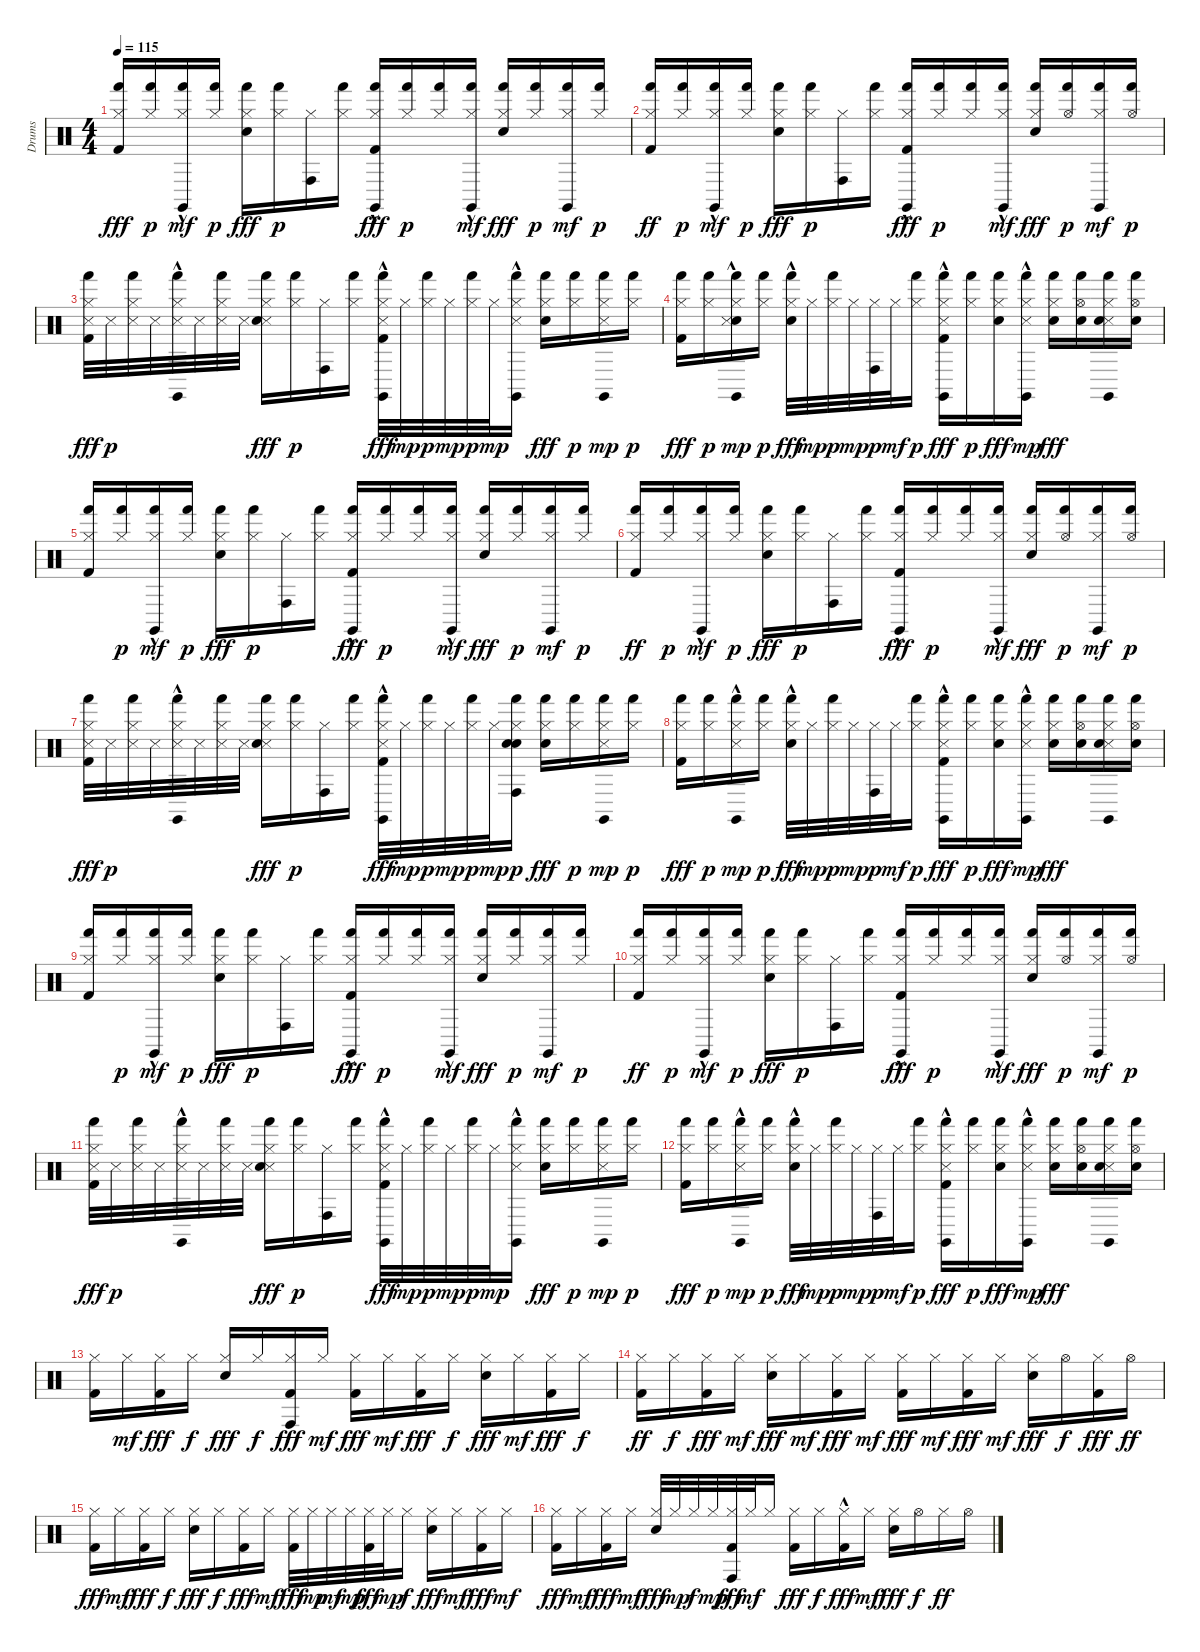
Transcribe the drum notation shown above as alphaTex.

\track ("Drums" "Drums") {instrument percussion}
\staff {score}
\articulation defaults
\ts (4 4)
\tempo 115
\clef neutral
\ks c
("Hi-Hat (closed)" "Hand (hit)" "Kick (hit) 2").16{dy fff} ("Hi-Hat (closed)" "Hand (hit)").16{dy p} ("Hi-Hat (closed)" "Hand (hit)" "Claves (hit)"{hac}).16{dy mf} ("Hi-Hat (closed)" "Hand (hit)").16{dy p} ("Hi-Hat (closed)" "Hand (hit)" "Snare (hit) 2").16{dy fff} ("Hi-Hat (closed)" "Hand (hit)").16{dy p} ("Hi-Hat (closed)" "Conga high (hit)").16 ("Hi-Hat (closed)" "Hand (hit)").16 ("Hi-Hat (closed)" "Hand (hit)" "Claves (hit)"{hac} "Kick (hit) 2").16{dy fff} ("Hi-Hat (closed)" "Hand (hit)").16{dy p} ("Hi-Hat (closed)" "Hand (hit)").16 ("Hi-Hat (closed)" "Hand (hit)" "Claves (hit)"{hac}).16{dy mf} ("Hi-Hat (closed)" "Hand (hit)" "Snare (hit) 2").16{dy fff} ("Hi-Hat (closed)" "Hand (hit)").16{dy p} ("Hi-Hat (closed)" "Hand (hit)" "Claves (hit)").16{dy mf} ("Hi-Hat (closed)" "Hand (hit)").16{dy p} |
("Hi-Hat (closed)" "Hand (hit)" "Kick (hit) 2").16{dy ff} ("Hi-Hat (closed)" "Hand (hit)").16{dy p} ("Hi-Hat (closed)" "Hand (hit)" "Claves (hit)"{hac}).16{dy mf} ("Hi-Hat (closed)" "Hand (hit)").16{dy p} ("Hi-Hat (closed)" "Hand (hit)" "Snare (hit) 2").16{dy fff} ("Hi-Hat (closed)" "Hand (hit)").16{dy p} ("Hi-Hat (closed)" "Conga high (hit)").16 ("Hi-Hat (closed)" "Hand (hit)").16 ("Hi-Hat (closed)" "Hand (hit)" "Claves (hit)"{hac} "Kick (hit) 2").16{dy fff} ("Hi-Hat (closed)" "Hand (hit)").16{dy p} ("Hi-Hat (closed)" "Hand (hit)").16 ("Hi-Hat (closed)" "Hand (hit)" "Claves (hit)"{hac}).16{dy mf} ("Hi-Hat (closed)" "Hand (hit)" "Snare (hit) 2").16{dy fff} ("Hi-Hat (open)" "Hand (hit)").16{dy p} ("Hi-Hat (closed)" "Hand (hit)" "Claves (hit)").16{dy mf} ("Hi-Hat (open)" "Hand (hit)").16{dy p} |
("Hi-Hat (closed)" "Hand (hit)" "Snare (side stick) 3" "Kick (hit) 2").32{dy fff} "Snare (side stick) 3".32{dy p} ("Hi-Hat (closed)" "Hand (hit)" "Snare (side stick) 3").32 "Snare (side stick) 3".32 ("Hi-Hat (closed)" "Hand (hit)" "Claves (hit)"{hac} "Snare (side stick) 3").32 "Snare (side stick) 3".32 ("Hi-Hat (closed)" "Hand (hit)" "Snare (side stick) 3").32 "Snare (side stick) 3".32 ("Hi-Hat (closed)" "Hand (hit)" "Snare (side stick) 3" "Snare (hit) 2").16{dy fff} ("Hi-Hat (closed)" "Hand (hit)").16{dy p} ("Hi-Hat (closed)" "Conga high (hit)").16 ("Hi-Hat (closed)" "Hand (hit)").16 ("Hi-Hat (closed)" "Hand (hit)" "Claves (hit)"{hac} "Snare (side stick) 3"{hac} "Kick (hit) 2").32{dy fff} "Hi-Hat (closed)".32{dy mp} ("Hi-Hat (closed)" "Hand (hit)").32{dy p} "Hi-Hat (closed)".32{dy mp} ("Hi-Hat (closed)" "Hand (hit)").32{dy p} "Hi-Hat (closed)".32{dy mp} ("Hi-Hat (closed)" "Hand (hit)" "Claves (hit)"{hac} "Snare (side stick) 3"{hac}).16 ("Hi-Hat (closed)" "Hand (hit)" "Snare (hit) 2").16{dy fff} ("Hi-Hat (closed)" "Hand (hit)").16{dy p} ("Hi-Hat (closed)" "Hand (hit)" "Claves (hit)" "Snare (side stick) 3").16{dy mp} ("Hi-Hat (closed)" "Hand (hit)").16{dy p} |
("Hi-Hat (closed)" "Hand (hit)" "Kick (hit) 2").16{dy fff} ("Hi-Hat (closed)" "Hand (hit)").16{dy p} ("Hi-Hat (closed)" "Hand (hit)" "Snare (hit)" "Claves (hit)"{hac} "Snare (side stick) 3"{hac}).16{dy mp} ("Hi-Hat (closed)" "Hand (hit)").16{dy p} ("Hi-Hat (closed)" "Hand (hit)" "Snare (hit) 2"{hac}).32{dy fff} "Hi-Hat (closed)".32{dy mp} ("Hi-Hat (closed)" "Hand (hit)").32{dy p} "Hi-Hat (closed)".32{dy mp} ("Hi-Hat (closed)" "Conga high (hit)").32{dy p} "Hi-Hat (closed)".32{dy mf} ("Hi-Hat (closed)" "Hand (hit)").16{dy p} ("Hi-Hat (closed)" "Hand (hit)" "Claves (hit)"{hac} "Snare (side stick) 3"{hac} "Kick (hit) 2").16{dy fff} ("Hi-Hat (closed)" "Hand (hit)").16{dy p} ("Hi-Hat (closed)" "Hand (hit)" "Snare (hit) 2").16{dy fff} ("Hi-Hat (closed)" "Hand (hit)" "Claves (hit)"{hac} "Snare (side stick) 3"{hac}).16{dy mp} ("Hi-Hat (closed)" "Hand (hit)" "Snare (hit) 2").16{dy fff} ("Hi-Hat (open)" "Hand (hit)" "Snare (hit) 2").16 ("Hi-Hat (closed)" "Hand (hit)" "Claves (hit)" "Snare (side stick) 3" "Snare (hit) 2").16 ("Hi-Hat (open)" "Hand (hit)" "Snare (hit) 2").16 |
("Hi-Hat (closed)" "Hand (hit)" "Kick (hit) 2").16 ("Hi-Hat (closed)" "Hand (hit)").16{dy p} ("Hi-Hat (closed)" "Hand (hit)" "Claves (hit)"{hac}).16{dy mf} ("Hi-Hat (closed)" "Hand (hit)").16{dy p} ("Hi-Hat (closed)" "Hand (hit)" "Snare (hit) 2").16{dy fff} ("Hi-Hat (closed)" "Hand (hit)").16{dy p} ("Hi-Hat (closed)" "Conga high (hit)").16 ("Hi-Hat (closed)" "Hand (hit)").16 ("Hi-Hat (closed)" "Hand (hit)" "Claves (hit)"{hac} "Kick (hit) 2").16{dy fff} ("Hi-Hat (closed)" "Hand (hit)").16{dy p} ("Hi-Hat (closed)" "Hand (hit)").16 ("Hi-Hat (closed)" "Hand (hit)" "Claves (hit)"{hac}).16{dy mf} ("Hi-Hat (closed)" "Hand (hit)" "Snare (hit) 2").16{dy fff} ("Hi-Hat (closed)" "Hand (hit)").16{dy p} ("Hi-Hat (closed)" "Hand (hit)" "Claves (hit)").16{dy mf} ("Hi-Hat (closed)" "Hand (hit)").16{dy p} |
("Hi-Hat (closed)" "Hand (hit)" "Kick (hit) 2").16{dy ff} ("Hi-Hat (closed)" "Hand (hit)").16{dy p} ("Hi-Hat (closed)" "Hand (hit)" "Claves (hit)"{hac}).16{dy mf} ("Hi-Hat (closed)" "Hand (hit)").16{dy p} ("Hi-Hat (closed)" "Hand (hit)" "Snare (hit) 2").16{dy fff} ("Hi-Hat (closed)" "Hand (hit)").16{dy p} ("Hi-Hat (closed)" "Conga high (hit)").16 ("Hi-Hat (closed)" "Hand (hit)").16 ("Hi-Hat (closed)" "Hand (hit)" "Claves (hit)"{hac} "Kick (hit) 2").16{dy fff} ("Hi-Hat (closed)" "Hand (hit)").16{dy p} ("Hi-Hat (closed)" "Hand (hit)").16 ("Hi-Hat (closed)" "Hand (hit)" "Claves (hit)"{hac}).16{dy mf} ("Hi-Hat (closed)" "Hand (hit)" "Snare (hit) 2").16{dy fff} ("Hi-Hat (open)" "Hand (hit)").16{dy p} ("Hi-Hat (closed)" "Hand (hit)" "Claves (hit)").16{dy mf} ("Hi-Hat (open)" "Hand (hit)").16{dy p} |
("Hi-Hat (closed)" "Hand (hit)" "Snare (side stick) 3" "Kick (hit) 2").32{dy fff} "Snare (side stick) 3".32{dy p} ("Hi-Hat (closed)" "Hand (hit)" "Snare (side stick) 3").32 "Snare (side stick) 3".32 ("Hi-Hat (closed)" "Hand (hit)" "Claves (hit)"{hac} "Snare (side stick) 3").32 "Snare (side stick) 3".32 ("Hi-Hat (closed)" "Hand (hit)" "Snare (side stick) 3").32 "Snare (side stick) 3".32 ("Hi-Hat (closed)" "Hand (hit)" "Snare (side stick) 3" "Snare (hit) 2").16{dy fff} ("Hi-Hat (closed)" "Hand (hit)").16{dy p} ("Hi-Hat (closed)" "Conga high (hit)").16 ("Hi-Hat (closed)" "Hand (hit)").16 ("Hi-Hat (closed)" "Hand (hit)" "Claves (hit)"{hac} "Snare (side stick) 3"{hac} "Kick (hit) 2").32{dy fff} "Hi-Hat (closed)".32{dy mp} ("Hi-Hat (closed)" "Hand (hit)").32{dy p} "Hi-Hat (closed)".32{dy mp} ("Hi-Hat (closed)" "Hand (hit)").32{dy p} "Hi-Hat (closed)".32{dy mp} ("Hi-Hat (closed)" "Hand (hit)" "Snare (hit)" "Snare (hit)" "Conga high (hit)").16{dy p} ("Hi-Hat (closed)" "Hand (hit)" "Snare (hit) 2").16{dy fff} ("Hi-Hat (closed)" "Hand (hit)").16{dy p} ("Hi-Hat (closed)" "Hand (hit)" "Claves (hit)" "Snare (side stick) 3").16{dy mp} ("Hi-Hat (closed)" "Hand (hit)").16{dy p} |
("Hi-Hat (closed)" "Hand (hit)" "Kick (hit) 2").16{dy fff} ("Hi-Hat (closed)" "Hand (hit)").16{dy p} ("Hi-Hat (closed)" "Hand (hit)" "Claves (hit)"{hac} "Snare (side stick) 3"{hac}).16{dy mp} ("Hi-Hat (closed)" "Hand (hit)").16{dy p} ("Hi-Hat (closed)" "Hand (hit)" "Snare (hit) 2"{hac}).32{dy fff} "Hi-Hat (closed)".32{dy mp} ("Hi-Hat (closed)" "Hand (hit)").32{dy p} "Hi-Hat (closed)".32{dy mp} ("Hi-Hat (closed)" "Conga high (hit)").32{dy p} "Hi-Hat (closed)".32{dy mf} ("Hi-Hat (closed)" "Hand (hit)").16{dy p} ("Hi-Hat (closed)" "Hand (hit)" "Claves (hit)"{hac} "Snare (side stick) 3"{hac} "Kick (hit) 2").16{dy fff} ("Hi-Hat (closed)" "Hand (hit)").16{dy p} ("Hi-Hat (closed)" "Hand (hit)" "Snare (hit) 2").16{dy fff} ("Hi-Hat (closed)" "Hand (hit)" "Claves (hit)"{hac} "Snare (side stick) 3"{hac}).16{dy mp} ("Hi-Hat (closed)" "Hand (hit)" "Snare (hit) 2").16{dy fff} ("Hi-Hat (open)" "Hand (hit)" "Snare (hit) 2").16 ("Hi-Hat (closed)" "Hand (hit)" "Claves (hit)" "Snare (side stick) 3" "Snare (hit) 2").16 ("Hi-Hat (open)" "Hand (hit)" "Snare (hit) 2").16 |
("Hi-Hat (closed)" "Hand (hit)" "Kick (hit) 2").16 ("Hi-Hat (closed)" "Hand (hit)").16{dy p} ("Hi-Hat (closed)" "Hand (hit)" "Claves (hit)"{hac}).16{dy mf} ("Hi-Hat (closed)" "Hand (hit)").16{dy p} ("Hi-Hat (closed)" "Hand (hit)" "Snare (hit) 2").16{dy fff} ("Hi-Hat (closed)" "Hand (hit)").16{dy p} ("Hi-Hat (closed)" "Conga high (hit)").16 ("Hi-Hat (closed)" "Hand (hit)").16 ("Hi-Hat (closed)" "Hand (hit)" "Claves (hit)"{hac} "Kick (hit) 2").16{dy fff} ("Hi-Hat (closed)" "Hand (hit)").16{dy p} ("Hi-Hat (closed)" "Hand (hit)").16 ("Hi-Hat (closed)" "Hand (hit)" "Claves (hit)"{hac}).16{dy mf} ("Hi-Hat (closed)" "Hand (hit)" "Snare (hit) 2").16{dy fff} ("Hi-Hat (closed)" "Hand (hit)").16{dy p} ("Hi-Hat (closed)" "Hand (hit)" "Claves (hit)").16{dy mf} ("Hi-Hat (closed)" "Hand (hit)").16{dy p} |
("Hi-Hat (closed)" "Hand (hit)" "Kick (hit) 2").16{dy ff} ("Hi-Hat (closed)" "Hand (hit)").16{dy p} ("Hi-Hat (closed)" "Hand (hit)" "Claves (hit)"{hac}).16{dy mf} ("Hi-Hat (closed)" "Hand (hit)").16{dy p} ("Hi-Hat (closed)" "Hand (hit)" "Snare (hit) 2").16{dy fff} ("Hi-Hat (closed)" "Hand (hit)").16{dy p} ("Hi-Hat (closed)" "Conga high (hit)").16 ("Hi-Hat (closed)" "Hand (hit)").16 ("Hi-Hat (closed)" "Hand (hit)" "Claves (hit)"{hac} "Kick (hit) 2").16{dy fff} ("Hi-Hat (closed)" "Hand (hit)").16{dy p} ("Hi-Hat (closed)" "Hand (hit)").16 ("Hi-Hat (closed)" "Hand (hit)" "Claves (hit)"{hac}).16{dy mf} ("Hi-Hat (closed)" "Hand (hit)" "Snare (hit) 2").16{dy fff} ("Hi-Hat (open)" "Hand (hit)").16{dy p} ("Hi-Hat (closed)" "Hand (hit)" "Claves (hit)").16{dy mf} ("Hi-Hat (open)" "Hand (hit)").16{dy p} |
("Hi-Hat (closed)" "Hand (hit)" "Snare (side stick) 3" "Kick (hit) 2").32{dy fff} "Snare (side stick) 3".32{dy p} ("Hi-Hat (closed)" "Hand (hit)" "Snare (side stick) 3").32 "Snare (side stick) 3".32 ("Hi-Hat (closed)" "Hand (hit)" "Claves (hit)"{hac} "Snare (side stick) 3").32 "Snare (side stick) 3".32 ("Hi-Hat (closed)" "Hand (hit)" "Snare (side stick) 3").32 "Snare (side stick) 3".32 ("Hi-Hat (closed)" "Hand (hit)" "Snare (side stick) 3" "Snare (hit) 2").16{dy fff} ("Hi-Hat (closed)" "Hand (hit)").16{dy p} ("Hi-Hat (closed)" "Conga high (hit)").16 ("Hi-Hat (closed)" "Hand (hit)").16 ("Hi-Hat (closed)" "Hand (hit)" "Claves (hit)"{hac} "Snare (side stick) 3"{hac} "Kick (hit) 2").32{dy fff} "Hi-Hat (closed)".32{dy mp} ("Hi-Hat (closed)" "Hand (hit)").32{dy p} "Hi-Hat (closed)".32{dy mp} ("Hi-Hat (closed)" "Hand (hit)").32{dy p} "Hi-Hat (closed)".32{dy mp} ("Hi-Hat (closed)" "Hand (hit)" "Claves (hit)"{hac} "Snare (side stick) 3"{hac}).16 ("Hi-Hat (closed)" "Hand (hit)" "Snare (hit) 2").16{dy fff} ("Hi-Hat (closed)" "Hand (hit)").16{dy p} ("Hi-Hat (closed)" "Hand (hit)" "Claves (hit)" "Snare (side stick) 3").16{dy mp} ("Hi-Hat (closed)" "Hand (hit)").16{dy p} |
("Hi-Hat (closed)" "Hand (hit)" "Kick (hit) 2").16{dy fff} ("Hi-Hat (closed)" "Hand (hit)").16{dy p} ("Hi-Hat (closed)" "Hand (hit)" "Claves (hit)"{hac} "Snare (side stick) 3"{hac}).16{dy mp} ("Hi-Hat (closed)" "Hand (hit)").16{dy p} ("Hi-Hat (closed)" "Hand (hit)" "Snare (hit) 2"{hac}).32{dy fff} "Hi-Hat (closed)".32{dy mp} ("Hi-Hat (closed)" "Hand (hit)").32{dy p} "Hi-Hat (closed)".32{dy mp} ("Hi-Hat (closed)" "Conga high (hit)").32{dy p} "Hi-Hat (closed)".32{dy mf} ("Hi-Hat (closed)" "Hand (hit)").16{dy p} ("Hi-Hat (closed)" "Hand (hit)" "Claves (hit)"{hac} "Snare (side stick) 3"{hac} "Kick (hit) 2").16{dy fff} ("Hi-Hat (closed)" "Hand (hit)").16{dy p} ("Hi-Hat (closed)" "Hand (hit)" "Snare (hit) 2").16{dy fff} ("Hi-Hat (closed)" "Hand (hit)" "Claves (hit)"{hac} "Snare (side stick) 3"{hac}).16{dy mp} ("Hi-Hat (closed)" "Hand (hit)" "Snare (hit) 2").16{dy fff} ("Hi-Hat (open)" "Hand (hit)" "Snare (hit) 2").16 ("Hi-Hat (closed)" "Hand (hit)" "Claves (hit)" "Snare (side stick) 3" "Snare (hit) 2").16 ("Hi-Hat (open)" "Hand (hit)" "Snare (hit) 2").16 |
("Hi-Hat (closed)" "Kick (hit) 2").16 "Hi-Hat (closed)".16{dy mf} ("Hi-Hat (closed)" "Kick (hit) 2").16{dy fff} "Hi-Hat (closed)".16{dy f} ("Hi-Hat (closed)" "Snare (hit) 2").16{dy fff} "Hi-Hat (closed)".16{dy f} ("Hi-Hat (closed)" "Conga high (hit)" "Kick (hit) 2").16{dy fff} "Hi-Hat (closed)".16{dy mf} ("Hi-Hat (closed)" "Kick (hit) 2").16{dy fff} "Hi-Hat (closed)".16{dy mf} ("Hi-Hat (closed)" "Kick (hit) 2").16{dy fff} "Hi-Hat (closed)".16{dy f} ("Hi-Hat (closed)" "Snare (hit) 2").16{dy fff} "Hi-Hat (closed)".16{dy mf} ("Hi-Hat (closed)" "Kick (hit) 2").16{dy fff} "Hi-Hat (closed)".16{dy f} |
("Hi-Hat (closed)" "Kick (hit) 2").16{dy ff} "Hi-Hat (closed)".16{dy f} ("Hi-Hat (closed)" "Kick (hit) 2").16{dy fff} "Hi-Hat (closed)".16{dy mf} ("Hi-Hat (closed)" "Snare (hit) 2").16{dy fff} "Hi-Hat (closed)".16{dy mf} ("Hi-Hat (closed)" "Kick (hit) 2").16{dy fff} "Hi-Hat (closed)".16{dy mf} ("Hi-Hat (closed)" "Kick (hit) 2").16{dy fff} "Hi-Hat (closed)".16{dy mf} ("Hi-Hat (closed)" "Kick (hit) 2").16{dy fff} "Hi-Hat (closed)".16{dy mf} ("Hi-Hat (closed)" "Snare (hit) 2").16{dy fff} "Hi-Hat (open)".16{dy f} ("Hi-Hat (closed)" "Kick (hit) 2").16{dy fff} "Hi-Hat (open)".16{dy ff} |
("Hi-Hat (closed)" "Kick (hit) 2").16{dy fff} "Hi-Hat (closed)".16{dy mf} ("Hi-Hat (closed)" "Kick (hit) 2").16{dy fff} "Hi-Hat (closed)".16{dy f} ("Hi-Hat (closed)" "Snare (hit) 2").16{dy fff} "Hi-Hat (closed)".16{dy f} ("Hi-Hat (closed)" "Kick (hit) 2").16{dy fff} "Hi-Hat (closed)".16{dy mf} ("Hi-Hat (closed)" "Kick (hit) 2").32{dy fff} "Hi-Hat (closed)".32{dy mp} "Hi-Hat (closed)".32{dy mf} "Hi-Hat (closed)".32{dy mp} ("Hi-Hat (closed)" "Kick (hit) 2").32{dy fff} "Hi-Hat (closed)".32{dy mp} "Hi-Hat (closed)".16{dy f} ("Hi-Hat (closed)" "Snare (hit) 2").16{dy fff} "Hi-Hat (closed)".16{dy mf} ("Hi-Hat (closed)" "Kick (hit) 2").16{dy fff} "Hi-Hat (closed)".16{dy mf} |
("Hi-Hat (closed)" "Kick (hit) 2").16{dy fff} "Hi-Hat (closed)".16{dy mf} ("Hi-Hat (closed)" "Kick (hit) 2").16{dy fff} "Hi-Hat (closed)".16{dy mf} ("Hi-Hat (closed)" "Snare (hit) 2").32{dy fff} "Hi-Hat (closed)".32{dy mp} "Hi-Hat (closed)".32{dy f} "Hi-Hat (closed)".32{dy mp} ("Hi-Hat (closed)" "Conga high (hit)" "Kick (hit) 2").32{dy fff} "Hi-Hat (closed)".32{dy mf} "Hi-Hat (closed)".16 ("Hi-Hat (closed)" "Kick (hit) 2").16{dy fff} "Hi-Hat (closed)".16{dy f} ("Hi-Hat (closed)" "Kick (hit) 2"{hac}).16{dy fff} "Hi-Hat (closed)".16{dy mf} ("Hi-Hat (closed)" "Snare (hit) 2").16{dy fff} "Hi-Hat (open)".16{dy f} "Hi-Hat (closed)".16{dy ff} "Hi-Hat (open)".16
